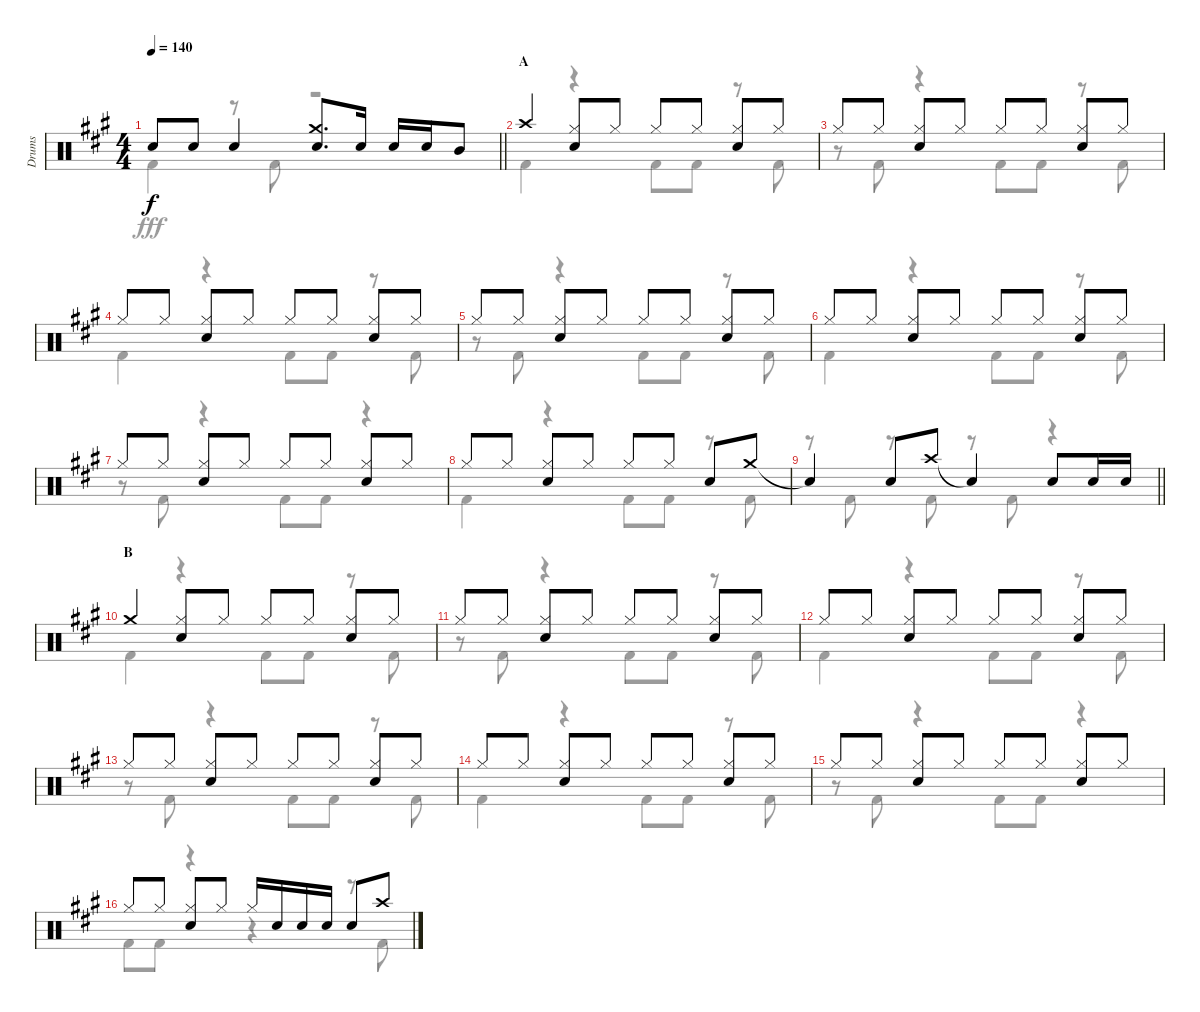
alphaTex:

\track ("Drums" "Drums") {instrument percussion}
\staff {score}
\articulation defaults
\voice
\ts (4 4)
\tempo 140
\clef neutral
\barLineRight lightlight
\ks a "Snare (hit)"{t}.8{dy f} "Snare (hit) 2".8 "Snare (hit) 2".4
("Crash medium (hit)" "Snare (hit) 2").8{d} "Snare (hit) 2".16 "Snare (hit) 2".16 "Snare (hit) 2".16 "Mid Tom (hit)".8 |
\section ("" "A")
"Crash high (hit)".4 ("Hi-Hat (closed)" "Snare (hit) 2").8 "Hi-Hat (closed)".8 "Hi-Hat (closed)".8 "Hi-Hat (closed)".8 ("Hi-Hat (closed)" "Snare (hit) 2").8 "Hi-Hat (closed)".8 |
"Hi-Hat (closed)".8 "Hi-Hat (closed)".8 ("Hi-Hat (closed)" "Snare (hit) 2").8 "Hi-Hat (closed)".8 "Hi-Hat (closed)".8 "Hi-Hat (closed)".8 ("Hi-Hat (closed)" "Snare (hit) 2").8 "Hi-Hat (closed)".8 |
"Hi-Hat (closed)".8 "Hi-Hat (closed)".8 ("Hi-Hat (closed)" "Snare (hit) 2").8 "Hi-Hat (closed)".8 "Hi-Hat (closed)".8 "Hi-Hat (closed)".8 ("Hi-Hat (closed)" "Snare (hit) 2").8 "Hi-Hat (closed)".8 |
"Hi-Hat (closed)".8 "Hi-Hat (closed)".8 ("Hi-Hat (closed)" "Snare (hit) 2").8 "Hi-Hat (closed)".8 "Hi-Hat (closed)".8 "Hi-Hat (closed)".8 ("Hi-Hat (closed)" "Snare (hit) 2").8 "Hi-Hat (closed)".8 |
"Hi-Hat (closed)".8 "Hi-Hat (closed)".8 ("Hi-Hat (closed)" "Snare (hit) 2").8 "Hi-Hat (closed)".8 "Hi-Hat (closed)".8 "Hi-Hat (closed)".8 ("Hi-Hat (closed)" "Snare (hit) 2").8 "Hi-Hat (closed)".8 |
"Hi-Hat (closed)".8 "Hi-Hat (closed)".8 ("Hi-Hat (closed)" "Snare (hit) 2").8 "Hi-Hat (closed)".8 "Hi-Hat (closed)".8 "Hi-Hat (closed)".8 ("Hi-Hat (closed)" "Snare (hit) 2").8 "Hi-Hat (closed)".8 |
"Hi-Hat (closed)".8 "Hi-Hat (closed)".8 ("Hi-Hat (closed)" "Snare (hit) 2").8 "Hi-Hat (closed)".8 "Hi-Hat (closed)".8 "Hi-Hat (closed)".8 "Snare (hit) 2".8 "Crash medium (hit)".8 |
\barLineRight lightlight "Snare (hit)"{t}.4 "Snare (hit) 2".8 "Crash high (hit)".8 "Snare (hit)"{t}.4 "Snare (hit) 2".8 "Snare (hit) 2".16 "Snare (hit) 2".16
|
\section ("" "B")
"Crash medium (hit)".4 ("Hi-Hat (closed)" "Snare (hit) 2").8 "Hi-Hat (closed)".8 "Hi-Hat (closed)".8 "Hi-Hat (closed)".8 ("Hi-Hat (closed)" "Snare (hit) 2").8 "Hi-Hat (closed)".8 |
"Hi-Hat (closed)".8 "Hi-Hat (closed)".8 ("Hi-Hat (closed)" "Snare (hit) 2").8 "Hi-Hat (closed)".8 "Hi-Hat (closed)".8 "Hi-Hat (closed)".8 ("Hi-Hat (closed)" "Snare (hit) 2").8 "Hi-Hat (closed)".8 |
"Hi-Hat (closed)".8 "Hi-Hat (closed)".8 ("Hi-Hat (closed)" "Snare (hit) 2").8 "Hi-Hat (closed)".8 "Hi-Hat (closed)".8 "Hi-Hat (closed)".8 ("Hi-Hat (closed)" "Snare (hit) 2").8 "Hi-Hat (closed)".8 |
"Hi-Hat (closed)".8 "Hi-Hat (closed)".8 ("Hi-Hat (closed)" "Snare (hit) 2").8 "Hi-Hat (closed)".8 "Hi-Hat (closed)".8 "Hi-Hat (closed)".8 ("Hi-Hat (closed)" "Snare (hit) 2").8 "Hi-Hat (closed)".8 |
"Hi-Hat (closed)".8 "Hi-Hat (closed)".8 ("Hi-Hat (closed)" "Snare (hit) 2").8 "Hi-Hat (closed)".8 "Hi-Hat (closed)".8 "Hi-Hat (closed)".8 ("Hi-Hat (closed)" "Snare (hit) 2").8 "Hi-Hat (closed)".8 |
"Hi-Hat (closed)".8 "Hi-Hat (closed)".8 ("Hi-Hat (closed)" "Snare (hit) 2").8 "Hi-Hat (closed)".8 "Hi-Hat (closed)".8 "Hi-Hat (closed)".8 ("Hi-Hat (closed)" "Snare (hit) 2").8 "Hi-Hat (closed)".8 |
"Hi-Hat (closed)".8 "Hi-Hat (closed)".8 ("Hi-Hat (closed)" "Snare (hit) 2").8 "Hi-Hat (closed)".8 "Hi-Hat (closed)".16 "Snare (hit) 2".16 "Snare (hit) 2".16 "Snare (hit) 2".16 "Snare (hit) 2".8 "Crash high (hit)".8
\voice
\clef neutral
\ottava regular
\simile none
\barLineRight lightlight
\ks a "Kick (hit) 2".4{dy fff}
r.8 "Kick (hit) 2".8 r.2 |
"Kick (hit) 2".4 r.4 "Kick (hit) 2".8 "Kick (hit) 2".8 r.8 "Kick (hit) 2".8 |
r.8 "Kick (hit) 2".8 r.4 "Kick (hit) 2".8 "Kick (hit) 2".8 r.8 "Kick (hit) 2".8 |
"Kick (hit) 2".4 r.4 "Kick (hit) 2".8 "Kick (hit) 2".8 r.8 "Kick (hit) 2".8 |
r.8 "Kick (hit) 2".8 r.4 "Kick (hit) 2".8 "Kick (hit) 2".8 r.8 "Kick (hit) 2".8 |
"Kick (hit) 2".4 r.4 "Kick (hit) 2".8 "Kick (hit) 2".8 r.8 "Kick (hit) 2".8 |
r.8 "Kick (hit) 2".8 r.4 "Kick (hit) 2".8 "Kick (hit) 2".8 r.4 |
"Kick (hit) 2".4 r.4 "Kick (hit) 2".8 "Kick (hit) 2".8 r.8 "Kick (hit) 2".8 |
\barLineRight lightlight
r.8 "Kick (hit) 2".8 r.8 "Kick (hit) 2".8 r.8 "Kick (hit) 2".8 r.4 |
"Kick (hit) 2".4 r.4 "Kick (hit) 2".8 "Kick (hit) 2".8 r.8 "Kick (hit) 2".8 |
r.8 "Kick (hit) 2".8 r.4 "Kick (hit) 2".8 "Kick (hit) 2".8 r.8 "Kick (hit) 2".8 |
"Kick (hit) 2".4 r.4 "Kick (hit) 2".8 "Kick (hit) 2".8 r.8 "Kick (hit) 2".8 |
r.8 "Kick (hit) 2".8 r.4 "Kick (hit) 2".8 "Kick (hit) 2".8 r.8 "Kick (hit) 2".8 |
"Kick (hit) 2".4 r.4 "Kick (hit) 2".8 "Kick (hit) 2".8 r.8 "Kick (hit) 2".8 |
r.8 "Kick (hit) 2".8 r.4 "Kick (hit) 2".8 "Kick (hit) 2".8 r.4 |
"Kick (hit) 2".8 "Kick (hit) 2".8 r.4 r.4 r.8 "Kick (hit) 2".8
